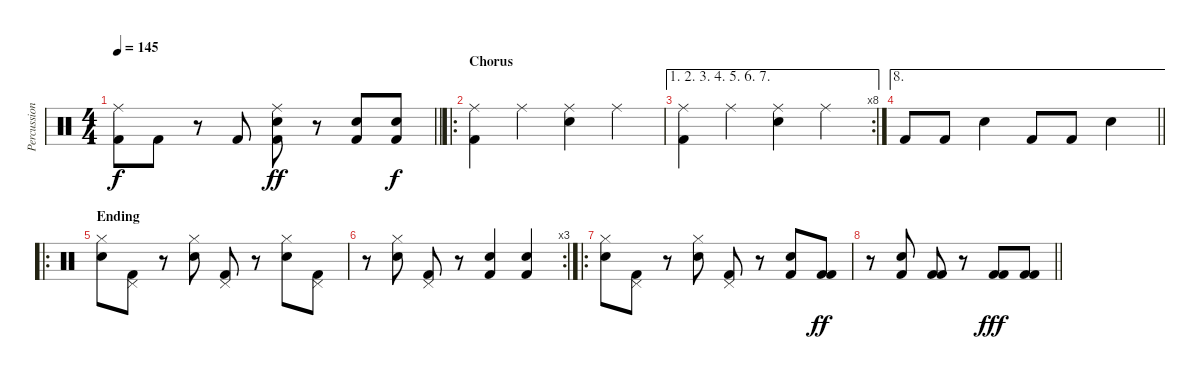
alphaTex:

\track ("Percussion" "Percussion") {instrument percussion}
\staff {score}
\articulation defaults
\ts (4 4)
\tempo 145
\clef neutral
\barLineRight lightlight
\ks c
("Ride (middle)" "Kick (hit) 2").8{dy f} "Kick (hit) 2".8 r.8 "Kick (hit) 2".8 ("Ride (middle)" "Snare (hit) 2" "Kick (hit) 2").8{dy ff} r.8 ("Snare (hit) 2" "Kick (hit) 2").8 ("Snare (hit) 2" "Kick (hit) 2").8{dy f} |
\ro
\section ("" "Chorus")
("Kick (hit) 2" "Ride (middle)").4 "Ride (middle)".4 ("Snare (hit) 2" "Ride (middle)").4 "Ride (middle)".4 |
\ae (1 2 3 4 5 6 7)
\rc 8
("Kick (hit) 2" "Ride (middle)").4 "Ride (middle)".4 ("Snare (hit) 2" "Ride (middle)").4 "Ride (middle)".4 |
\ae 8
\barLineRight lightlight "Kick (hit) 2".8 "Kick (hit) 2".8 "Snare (hit) 2".4 "Kick (hit) 2".8 "Kick (hit) 2".8 "Snare (hit) 2".4
|
\ro
\section ("" "Ending")
("Hi-Hat (closed)" "Snare (hit) 2").8 ("Pedal Hi-Hat (hit)" "Kick (hit) 2").8 r.8 ("Hi-Hat (closed)" "Snare (hit) 2").8 ("Pedal Hi-Hat (hit)" "Kick (hit) 2").8 r.8 ("Hi-Hat (closed)" "Snare (hit) 2").8 ("Pedal Hi-Hat (hit)" "Kick (hit) 2").8 |
\rc 3
r.8 ("Hi-Hat (closed)" "Snare (hit) 2").8 ("Pedal Hi-Hat (hit)" "Kick (hit) 2").8 r.8 ("Snare (hit) 2" "Kick (hit) 2").4 ("Snare (hit) 2" "Kick (hit) 2").4 |
\ro
("Hi-Hat (closed)" "Snare (hit) 2").8 ("Pedal Hi-Hat (hit)" "Kick (hit) 2").8 r.8 ("Hi-Hat (closed)" "Snare (hit) 2").8 ("Pedal Hi-Hat (hit)" "Kick (hit) 2").8 r.8 ("Kick (hit) 2" "Snare (hit) 2").8 ("Kick (hit) 2" "Kick (hit) 2").8{dy ff} |
\barLineRight lightlight
r.8 ("Kick (hit) 2" "Snare (hit) 2").8 ("Kick (hit) 2" "Kick (hit) 2").8 r.8 ("Kick (hit) 2" "Kick (hit) 2").8{dy fff} ("Kick (hit) 2" "Kick (hit) 2").8
